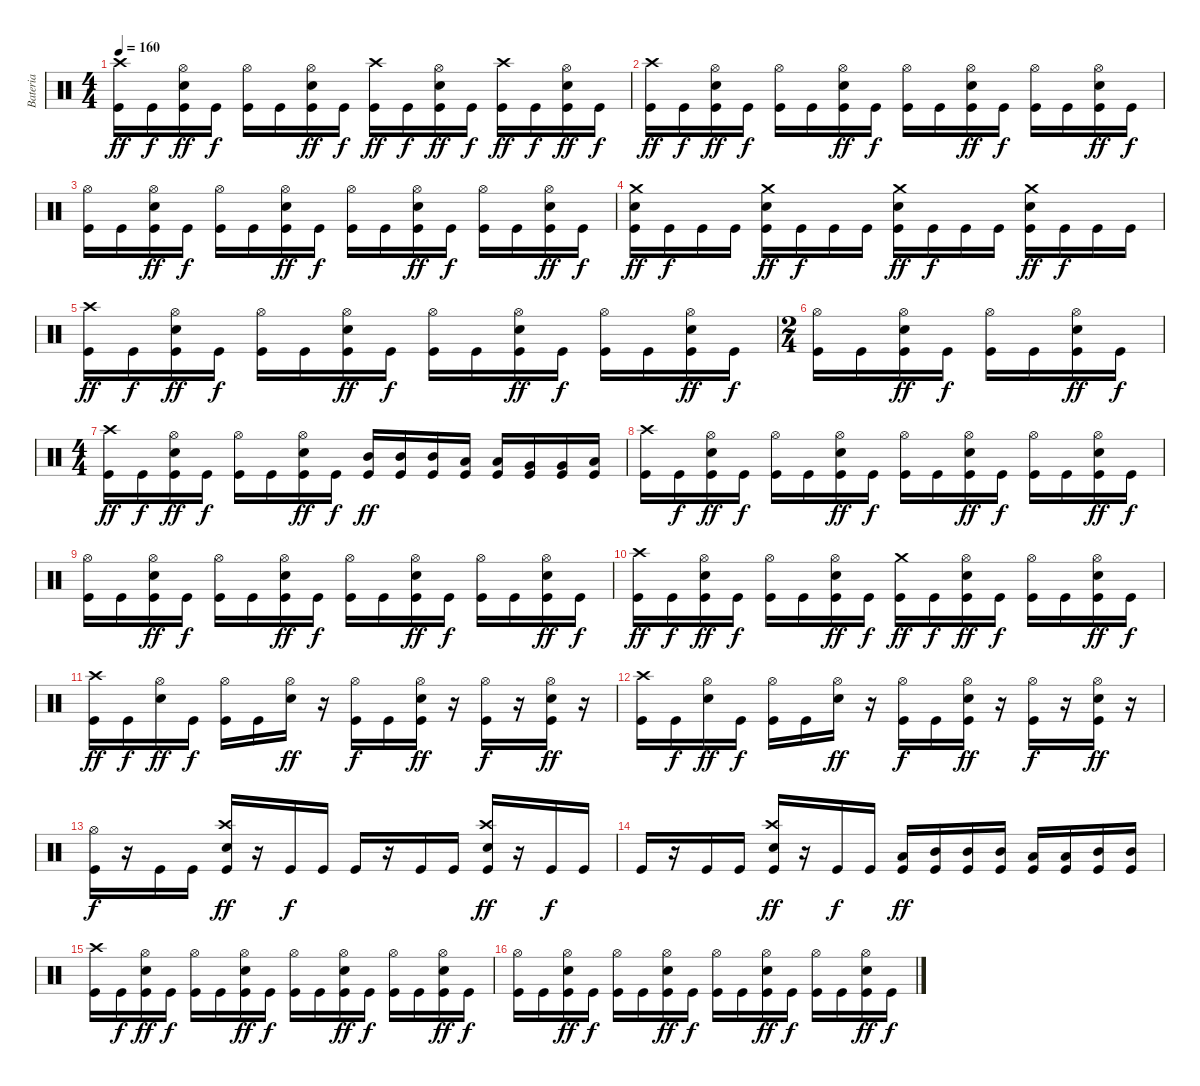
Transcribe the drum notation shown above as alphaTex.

\track ("Bateria" "Bateria") {instrument percussion}
\staff {score}
\articulation defaults
\ts (4 4)
\tempo 160
\clef neutral
\ks c
("Kick (hit)" "Crash high (hit)").16{dy ff} "Kick (hit)".16{dy f} ("Kick (hit)" "Electric Snare (hit)" "Hi-Hat (open)").16{dy ff} "Kick (hit)".16{dy f} ("Kick (hit)" "Hi-Hat (open)").16 "Kick (hit)".16 ("Kick (hit)" "Electric Snare (hit)" "Hi-Hat (open)").16{dy ff} "Kick (hit)".16{dy f} ("Kick (hit)" "Crash high (hit)").16{dy ff} "Kick (hit)".16{dy f} ("Kick (hit)" "Electric Snare (hit)" "Hi-Hat (open)").16{dy ff} "Kick (hit)".16{dy f} ("Kick (hit)" "Crash high (hit)").16{dy ff} "Kick (hit)".16{dy f} ("Kick (hit)" "Electric Snare (hit)" "Hi-Hat (open)").16{dy ff} "Kick (hit)".16{dy f} |
("Kick (hit)" "Crash high (hit)").16{dy ff} "Kick (hit)".16{dy f} ("Kick (hit)" "Electric Snare (hit)" "Hi-Hat (open)").16{dy ff} "Kick (hit)".16{dy f} ("Kick (hit)" "Hi-Hat (open)").16 "Kick (hit)".16 ("Kick (hit)" "Electric Snare (hit)" "Hi-Hat (open)").16{dy ff} "Kick (hit)".16{dy f} ("Kick (hit)" "Hi-Hat (open)").16 "Kick (hit)".16 ("Kick (hit)" "Electric Snare (hit)" "Hi-Hat (open)").16{dy ff} "Kick (hit)".16{dy f} ("Kick (hit)" "Hi-Hat (open)").16 "Kick (hit)".16 ("Kick (hit)" "Electric Snare (hit)" "Hi-Hat (open)").16{dy ff} "Kick (hit)".16{dy f} |
("Kick (hit)" "Hi-Hat (open)").16 "Kick (hit)".16 ("Kick (hit)" "Electric Snare (hit)" "Hi-Hat (open)").16{dy ff} "Kick (hit)".16{dy f} ("Kick (hit)" "Hi-Hat (open)").16 "Kick (hit)".16 ("Kick (hit)" "Electric Snare (hit)" "Hi-Hat (open)").16{dy ff} "Kick (hit)".16{dy f} ("Kick (hit)" "Hi-Hat (open)").16 "Kick (hit)".16 ("Kick (hit)" "Electric Snare (hit)" "Hi-Hat (open)").16{dy ff} "Kick (hit)".16{dy f} ("Kick (hit)" "Hi-Hat (open)").16 "Kick (hit)".16 ("Kick (hit)" "Electric Snare (hit)" "Hi-Hat (open)").16{dy ff} "Kick (hit)".16{dy f} |
("Kick (hit)" "Electric Snare (hit)" "Crash medium (hit)").16{dy ff} "Kick (hit)".16{dy f} "Kick (hit)".16 "Kick (hit)".16 ("Kick (hit)" "Electric Snare (hit)" "Crash medium (hit)").16{dy ff} "Kick (hit)".16{dy f} "Kick (hit)".16 "Kick (hit)".16 ("Kick (hit)" "Electric Snare (hit)" "Crash medium (hit)").16{dy ff} "Kick (hit)".16{dy f} "Kick (hit)".16 "Kick (hit)".16 ("Kick (hit)" "Electric Snare (hit)" "Crash medium (hit)").16{dy ff} "Kick (hit)".16{dy f} "Kick (hit)".16 "Kick (hit)".16 |
("Kick (hit)" "Crash high (hit)").16{dy ff} "Kick (hit)".16{dy f} ("Kick (hit)" "Electric Snare (hit)" "Hi-Hat (open)").16{dy ff} "Kick (hit)".16{dy f} ("Kick (hit)" "Hi-Hat (open)").16 "Kick (hit)".16 ("Kick (hit)" "Electric Snare (hit)" "Hi-Hat (open)").16{dy ff} "Kick (hit)".16{dy f} ("Kick (hit)" "Hi-Hat (open)").16 "Kick (hit)".16 ("Kick (hit)" "Electric Snare (hit)" "Hi-Hat (open)").16{dy ff} "Kick (hit)".16{dy f} ("Kick (hit)" "Hi-Hat (open)").16 "Kick (hit)".16 ("Kick (hit)" "Electric Snare (hit)" "Hi-Hat (open)").16{dy ff} "Kick (hit)".16{dy f} |
\ts (2 4)
("Kick (hit)" "Hi-Hat (open)").16 "Kick (hit)".16 ("Kick (hit)" "Electric Snare (hit)" "Hi-Hat (open)").16{dy ff} "Kick (hit)".16{dy f} ("Kick (hit)" "Hi-Hat (open)").16 "Kick (hit)".16 ("Kick (hit)" "Electric Snare (hit)" "Hi-Hat (open)").16{dy ff} "Kick (hit)".16{dy f} |
\ts (4 4)
("Kick (hit)" "Crash high (hit)").16{dy ff} "Kick (hit)".16{dy f} ("Kick (hit)" "Electric Snare (hit)" "Hi-Hat (open)").16{dy ff} "Kick (hit)".16{dy f} ("Kick (hit)" "Hi-Hat (open)").16 "Kick (hit)".16 ("Kick (hit)" "Electric Snare (hit)" "Hi-Hat (open)").16{dy ff} "Kick (hit)".16{dy f} ("Kick (hit)" "Mid Tom (hit)").16{dy ff} ("Kick (hit)" "Mid Tom (hit)").16 ("Kick (hit)" "Mid Tom (hit)").16 ("Kick (hit)" "Low Tom (hit)").16 ("Kick (hit)" "Low Tom (hit)").16 ("Kick (hit)" "Very Low Tom (hit)").16 ("Kick (hit)" "Very Low Tom (hit)").16 ("Kick (hit)" "Low Floor Tom (hit)").16 |
("Kick (hit)" "Crash high (hit)").16 "Kick (hit)".16{dy f} ("Kick (hit)" "Electric Snare (hit)" "Hi-Hat (open)").16{dy ff} "Kick (hit)".16{dy f} ("Kick (hit)" "Hi-Hat (open)").16 "Kick (hit)".16 ("Kick (hit)" "Electric Snare (hit)" "Hi-Hat (open)").16{dy ff} "Kick (hit)".16{dy f} ("Kick (hit)" "Hi-Hat (open)").16 "Kick (hit)".16 ("Kick (hit)" "Electric Snare (hit)" "Hi-Hat (open)").16{dy ff} "Kick (hit)".16{dy f} ("Kick (hit)" "Hi-Hat (open)").16 "Kick (hit)".16 ("Kick (hit)" "Electric Snare (hit)" "Hi-Hat (open)").16{dy ff} "Kick (hit)".16{dy f} |
("Kick (hit)" "Hi-Hat (open)").16 "Kick (hit)".16 ("Kick (hit)" "Electric Snare (hit)" "Hi-Hat (open)").16{dy ff} "Kick (hit)".16{dy f} ("Kick (hit)" "Hi-Hat (open)").16 "Kick (hit)".16 ("Kick (hit)" "Electric Snare (hit)" "Hi-Hat (open)").16{dy ff} "Kick (hit)".16{dy f} ("Kick (hit)" "Hi-Hat (open)").16 "Kick (hit)".16 ("Kick (hit)" "Electric Snare (hit)" "Hi-Hat (open)").16{dy ff} "Kick (hit)".16{dy f} ("Kick (hit)" "Hi-Hat (open)").16 "Kick (hit)".16 ("Kick (hit)" "Electric Snare (hit)" "Hi-Hat (open)").16{dy ff} "Kick (hit)".16{dy f} |
("Kick (hit)" "Crash high (hit)").16{dy ff} "Kick (hit)".16{dy f} ("Kick (hit)" "Electric Snare (hit)" "Hi-Hat (open)").16{dy ff} "Kick (hit)".16{dy f} ("Kick (hit)" "Hi-Hat (open)").16 "Kick (hit)".16 ("Kick (hit)" "Electric Snare (hit)" "Hi-Hat (open)").16{dy ff} "Kick (hit)".16{dy f} ("Kick (hit)" "Crash medium (hit)").16{dy ff} "Kick (hit)".16{dy f} ("Kick (hit)" "Electric Snare (hit)" "Hi-Hat (open)").16{dy ff} "Kick (hit)".16{dy f} ("Kick (hit)" "Hi-Hat (open)").16 "Kick (hit)".16 ("Kick (hit)" "Electric Snare (hit)" "Hi-Hat (open)").16{dy ff} "Kick (hit)".16{dy f} |
("Kick (hit)" "Crash high (hit)").16{dy ff} "Kick (hit)".16{dy f} ("Electric Snare (hit)" "Hi-Hat (open)").16{dy ff} "Kick (hit)".16{dy f} ("Kick (hit)" "Hi-Hat (open)").16 "Kick (hit)".16 ("Electric Snare (hit)" "Hi-Hat (open)").16{dy ff} r.16 ("Kick (hit)" "Hi-Hat (open)").16{dy f} "Kick (hit)".16 ("Kick (hit)" "Electric Snare (hit)" "Hi-Hat (open)").16{dy ff} r.16 ("Kick (hit)" "Hi-Hat (open)").16{dy f} r.16 ("Kick (hit)" "Electric Snare (hit)" "Hi-Hat (open)").16{dy ff} r.16 |
("Kick (hit)" "Crash high (hit)").16 "Kick (hit)".16{dy f} ("Electric Snare (hit)" "Hi-Hat (open)").16{dy ff} "Kick (hit)".16{dy f} ("Kick (hit)" "Hi-Hat (open)").16 "Kick (hit)".16 ("Electric Snare (hit)" "Hi-Hat (open)").16{dy ff} r.16 ("Kick (hit)" "Hi-Hat (open)").16{dy f} "Kick (hit)".16 ("Kick (hit)" "Electric Snare (hit)" "Hi-Hat (open)").16{dy ff} r.16 ("Kick (hit)" "Hi-Hat (open)").16{dy f} r.16 ("Kick (hit)" "Electric Snare (hit)" "Hi-Hat (open)").16{dy ff} r.16 |
("Kick (hit)" "Hi-Hat (open)").16{dy f} r.16 "Kick (hit)".16 "Kick (hit)".16 ("Kick (hit)" "Electric Snare (hit)" "Crash high (hit)").16{dy ff} r.16 "Kick (hit)".16{dy f} "Kick (hit)".16 "Kick (hit)".16 r.16 "Kick (hit)".16 "Kick (hit)".16 ("Kick (hit)" "Electric Snare (hit)" "Crash high (hit)").16{dy ff} r.16 "Kick (hit)".16{dy f} "Kick (hit)".16 |
"Kick (hit)".16 r.16 "Kick (hit)".16 "Kick (hit)".16 ("Kick (hit)" "Electric Snare (hit)" "Crash high (hit)").16{dy ff} r.16 "Kick (hit)".16{dy f} "Kick (hit)".16 ("Kick (hit)" "Low Tom (hit)").16{dy ff} ("Kick (hit)" "Mid Tom (hit)").16 ("Kick (hit)" "Mid Tom (hit)").16 ("Kick (hit)" "Mid Tom (hit)").16 ("Kick (hit)" "Low Tom (hit)").16 ("Kick (hit)" "Low Tom (hit)").16 ("Kick (hit)" "Mid Tom (hit)").16 ("Kick (hit)" "Mid Tom (hit)").16 |
("Kick (hit)" "Crash high (hit)").16 "Kick (hit)".16{dy f} ("Kick (hit)" "Electric Snare (hit)" "Hi-Hat (open)").16{dy ff} "Kick (hit)".16{dy f} ("Kick (hit)" "Hi-Hat (open)").16 "Kick (hit)".16 ("Kick (hit)" "Electric Snare (hit)" "Hi-Hat (open)").16{dy ff} "Kick (hit)".16{dy f} ("Kick (hit)" "Hi-Hat (open)").16 "Kick (hit)".16 ("Kick (hit)" "Electric Snare (hit)" "Hi-Hat (open)").16{dy ff} "Kick (hit)".16{dy f} ("Kick (hit)" "Hi-Hat (open)").16 "Kick (hit)".16 ("Kick (hit)" "Electric Snare (hit)" "Hi-Hat (open)").16{dy ff} "Kick (hit)".16{dy f} |
("Kick (hit)" "Hi-Hat (open)").16 "Kick (hit)".16 ("Kick (hit)" "Electric Snare (hit)" "Hi-Hat (open)").16{dy ff} "Kick (hit)".16{dy f} ("Kick (hit)" "Hi-Hat (open)").16 "Kick (hit)".16 ("Kick (hit)" "Electric Snare (hit)" "Hi-Hat (open)").16{dy ff} "Kick (hit)".16{dy f} ("Kick (hit)" "Hi-Hat (open)").16 "Kick (hit)".16 ("Kick (hit)" "Electric Snare (hit)" "Hi-Hat (open)").16{dy ff} "Kick (hit)".16{dy f} ("Kick (hit)" "Hi-Hat (open)").16 "Kick (hit)".16 ("Kick (hit)" "Electric Snare (hit)" "Hi-Hat (open)").16{dy ff} "Kick (hit)".16{dy f}
